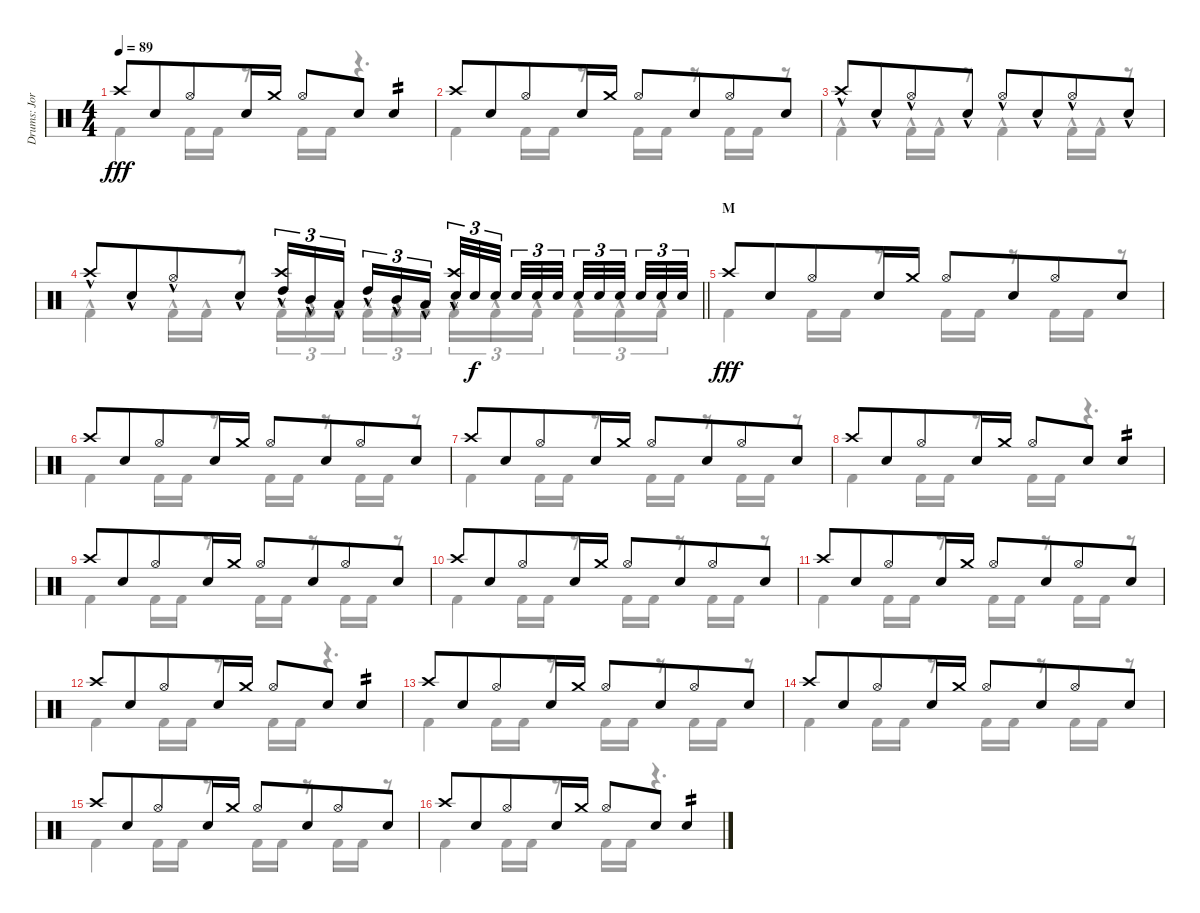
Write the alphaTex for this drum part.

\track ("Drums: Jorg" "Drums: Jor") {instrument percussion}
\staff {score}
\articulation defaults
\voice
\ts (4 4)
\tempo 89
\clef neutral
\ks c "Crash high (hit)".8{dy fff} "Snare (hit) 2".8{beam merge} "Hi-Hat (open)".8 "Snare (hit) 2".16{beam merge} "Crash medium (hit)".16 "Hi-Hat (open)".8{beam merge} "Snare (hit) 2".8 "Snare (hit) 2".4{tp 2}
|
"Crash high (hit)".8 "Snare (hit) 2".8{beam merge} "Hi-Hat (open)".8 "Snare (hit) 2".16{beam merge} "Crash medium (hit)".16 "Hi-Hat (open)".8{beam merge} "Snare (hit) 2".8{beam merge} "Hi-Hat (open)".8 "Snare (hit) 2".8 |
"Crash high (hit)"{hac}.8 "Snare (hit) 2"{hac}.8{beam merge} "Hi-Hat (open)"{hac}.8 "Snare (hit) 2"{hac}.8 "Hi-Hat (open)"{hac}.8 "Snare (hit) 2"{hac}.8{beam merge} "Hi-Hat (open)"{hac}.8 "Snare (hit) 2"{hac}.8 |
\barLineRight lightlight "Crash high (hit)"{hac}.8 "Snare (hit) 2"{hac}.8{beam merge} "Hi-Hat (open)"{hac}.8 "Snare (hit) 2"{hac}.8
("Crash high (hit)" "High Tom (hit)"{hac}).16{tu (3 2)} "Mid Tom (hit)"{hac}.16{tu (3 2)} "Low Tom (hit)"{hac}.16{tu (3 2) beam splitsecondary} "High Tom (hit)"{hac}.16{tu (3 2)} "Mid Tom (hit)"{hac}.16{tu (3 2)} "Low Tom (hit)"{hac}.16{tu (3 2)} ("Crash high (hit)"{hac} "Snare (hit) 2"{hac}).32{tu (3 2)} "Electric Snare (hit)".32{tu (3 2) dy f} "Electric Snare (hit)".32{tu (3 2) beam splitsecondary} "Electric Snare (hit)".32{tu (3 2)} "Electric Snare (hit)".32{tu (3 2)} "Electric Snare (hit)".32{tu (3 2) beam splitsecondary} "Electric Snare (hit)".32{tu (3 2)} "Electric Snare (hit)".32{tu (3 2)} "Electric Snare (hit)".32{tu (3 2) beam splitsecondary} "Electric Snare (hit)".32{tu (3 2)} "Electric Snare (hit)".32{tu (3 2)} "Electric Snare (hit)".32{tu (3 2)} |
\section ("" "M")
"Crash high (hit)".8{dy fff} "Snare (hit) 2".8{beam merge} "Hi-Hat (open)".8 "Snare (hit) 2".16{beam merge} "Crash medium (hit)".16 "Hi-Hat (open)".8{beam merge} "Snare (hit) 2".8{beam merge} "Hi-Hat (open)".8 "Snare (hit) 2".8 |
"Crash high (hit)".8 "Snare (hit) 2".8{beam merge} "Hi-Hat (open)".8 "Snare (hit) 2".16{beam merge} "Crash medium (hit)".16 "Hi-Hat (open)".8{beam merge} "Snare (hit) 2".8{beam merge} "Hi-Hat (open)".8 "Snare (hit) 2".8 |
"Crash high (hit)".8 "Snare (hit) 2".8{beam merge} "Hi-Hat (open)".8 "Snare (hit) 2".16{beam merge} "Crash medium (hit)".16 "Hi-Hat (open)".8{beam merge} "Snare (hit) 2".8{beam merge} "Hi-Hat (open)".8 "Snare (hit) 2".8 |
"Crash high (hit)".8 "Snare (hit) 2".8{beam merge} "Hi-Hat (open)".8 "Snare (hit) 2".16{beam merge} "Crash medium (hit)".16 "Hi-Hat (open)".8{beam merge} "Snare (hit) 2".8 "Snare (hit) 2".4{tp 2} |
"Crash high (hit)".8 "Snare (hit) 2".8{beam merge} "Hi-Hat (open)".8 "Snare (hit) 2".16{beam merge} "Crash medium (hit)".16 "Hi-Hat (open)".8{beam merge} "Snare (hit) 2".8{beam merge} "Hi-Hat (open)".8 "Snare (hit) 2".8 |
"Crash high (hit)".8 "Snare (hit) 2".8{beam merge} "Hi-Hat (open)".8 "Snare (hit) 2".16{beam merge} "Crash medium (hit)".16 "Hi-Hat (open)".8{beam merge} "Snare (hit) 2".8{beam merge} "Hi-Hat (open)".8 "Snare (hit) 2".8 |
"Crash high (hit)".8 "Snare (hit) 2".8{beam merge} "Hi-Hat (open)".8 "Snare (hit) 2".16{beam merge} "Crash medium (hit)".16 "Hi-Hat (open)".8{beam merge} "Snare (hit) 2".8{beam merge} "Hi-Hat (open)".8 "Snare (hit) 2".8 |
"Crash high (hit)".8 "Snare (hit) 2".8{beam merge} "Hi-Hat (open)".8 "Snare (hit) 2".16{beam merge} "Crash medium (hit)".16 "Hi-Hat (open)".8{beam merge} "Snare (hit) 2".8 "Snare (hit) 2".4{tp 2} |
"Crash high (hit)".8 "Snare (hit) 2".8{beam merge} "Hi-Hat (open)".8 "Snare (hit) 2".16{beam merge} "Crash medium (hit)".16 "Hi-Hat (open)".8{beam merge} "Snare (hit) 2".8{beam merge} "Hi-Hat (open)".8 "Snare (hit) 2".8 |
"Crash high (hit)".8 "Snare (hit) 2".8{beam merge} "Hi-Hat (open)".8 "Snare (hit) 2".16{beam merge} "Crash medium (hit)".16 "Hi-Hat (open)".8{beam merge} "Snare (hit) 2".8{beam merge} "Hi-Hat (open)".8 "Snare (hit) 2".8 |
"Crash high (hit)".8 "Snare (hit) 2".8{beam merge} "Hi-Hat (open)".8 "Snare (hit) 2".16{beam merge} "Crash medium (hit)".16 "Hi-Hat (open)".8{beam merge} "Snare (hit) 2".8{beam merge} "Hi-Hat (open)".8 "Snare (hit) 2".8 |
"Crash high (hit)".8 "Snare (hit) 2".8{beam merge} "Hi-Hat (open)".8 "Snare (hit) 2".16{beam merge} "Crash medium (hit)".16 "Hi-Hat (open)".8{beam merge} "Snare (hit) 2".8 "Snare (hit) 2".4{tp 2}
\voice
\clef neutral
\ottava regular
\simile none
\ks c "Kick (hit) 2".4{dy fff} "Kick (hit) 2".16 "Kick (hit) 2".16
r.8 "Kick (hit) 2".16 "Kick (hit) 2".16 r.4{d} |
"Kick (hit) 2".4 "Kick (hit) 2".16 "Kick (hit) 2".16 r.8 "Kick (hit) 2".16 "Kick (hit) 2".16 r.8 "Kick (hit) 2".16 "Kick (hit) 2".16 r.8 |
"Kick (hit) 2"{hac}.4 "Kick (hit) 2"{hac}.16 "Kick (hit) 2"{hac}.16 r.8 "Kick (hit) 2"{hac}.4 "Kick (hit) 2"{hac}.16 "Kick (hit) 2"{hac}.16 r.8 |
\barLineRight lightlight "Kick (hit) 2"{hac}.4 "Kick (hit) 2"{hac}.16 "Kick (hit) 2"{hac}.16
r.8 "Kick (hit) 2"{hac}.16{tu (3 2)} "Kick (hit) 2"{hac}.16{tu (3 2)} "Kick (hit) 2"{hac}.16{tu (3 2) beam splitsecondary} "Kick (hit) 2"{hac}.16{tu (3 2)} "Kick (hit) 2"{hac}.16{tu (3 2)} "Kick (hit) 2"{hac}.16{tu (3 2)} "Kick (hit) 2"{hac}.16{tu (3 2)} "Kick (hit) 2"{hac}.16{tu (3 2)} "Kick (hit) 2"{hac}.16{tu (3 2) beam splitsecondary} "Kick (hit) 2"{hac}.16{tu (3 2)} "Kick (hit) 2"{hac}.16{tu (3 2)} "Kick (hit) 2"{hac}.16{tu (3 2)} |
"Kick (hit) 2".4 "Kick (hit) 2".16 "Kick (hit) 2".16 r.8 "Kick (hit) 2".16 "Kick (hit) 2".16 r.8 "Kick (hit) 2".16 "Kick (hit) 2".16 r.8 |
"Kick (hit) 2".4 "Kick (hit) 2".16 "Kick (hit) 2".16 r.8 "Kick (hit) 2".16 "Kick (hit) 2".16 r.8 "Kick (hit) 2".16 "Kick (hit) 2".16 r.8 |
"Kick (hit) 2".4 "Kick (hit) 2".16 "Kick (hit) 2".16 r.8 "Kick (hit) 2".16 "Kick (hit) 2".16 r.8 "Kick (hit) 2".16 "Kick (hit) 2".16 r.8 |
"Kick (hit) 2".4 "Kick (hit) 2".16 "Kick (hit) 2".16 r.8 "Kick (hit) 2".16 "Kick (hit) 2".16 r.4{d} |
"Kick (hit) 2".4 "Kick (hit) 2".16 "Kick (hit) 2".16 r.8 "Kick (hit) 2".16 "Kick (hit) 2".16 r.8 "Kick (hit) 2".16 "Kick (hit) 2".16 r.8 |
"Kick (hit) 2".4 "Kick (hit) 2".16 "Kick (hit) 2".16 r.8 "Kick (hit) 2".16 "Kick (hit) 2".16 r.8 "Kick (hit) 2".16 "Kick (hit) 2".16 r.8 |
"Kick (hit) 2".4 "Kick (hit) 2".16 "Kick (hit) 2".16 r.8 "Kick (hit) 2".16 "Kick (hit) 2".16 r.8 "Kick (hit) 2".16 "Kick (hit) 2".16 r.8 |
"Kick (hit) 2".4 "Kick (hit) 2".16 "Kick (hit) 2".16 r.8 "Kick (hit) 2".16 "Kick (hit) 2".16 r.4{d} |
"Kick (hit) 2".4 "Kick (hit) 2".16 "Kick (hit) 2".16 r.8 "Kick (hit) 2".16 "Kick (hit) 2".16 r.8 "Kick (hit) 2".16 "Kick (hit) 2".16 r.8 |
"Kick (hit) 2".4 "Kick (hit) 2".16 "Kick (hit) 2".16 r.8 "Kick (hit) 2".16 "Kick (hit) 2".16 r.8 "Kick (hit) 2".16 "Kick (hit) 2".16 r.8 |
"Kick (hit) 2".4 "Kick (hit) 2".16 "Kick (hit) 2".16 r.8 "Kick (hit) 2".16 "Kick (hit) 2".16 r.8 "Kick (hit) 2".16 "Kick (hit) 2".16 r.8 |
"Kick (hit) 2".4 "Kick (hit) 2".16 "Kick (hit) 2".16 r.8 "Kick (hit) 2".16 "Kick (hit) 2".16 r.4{d}
